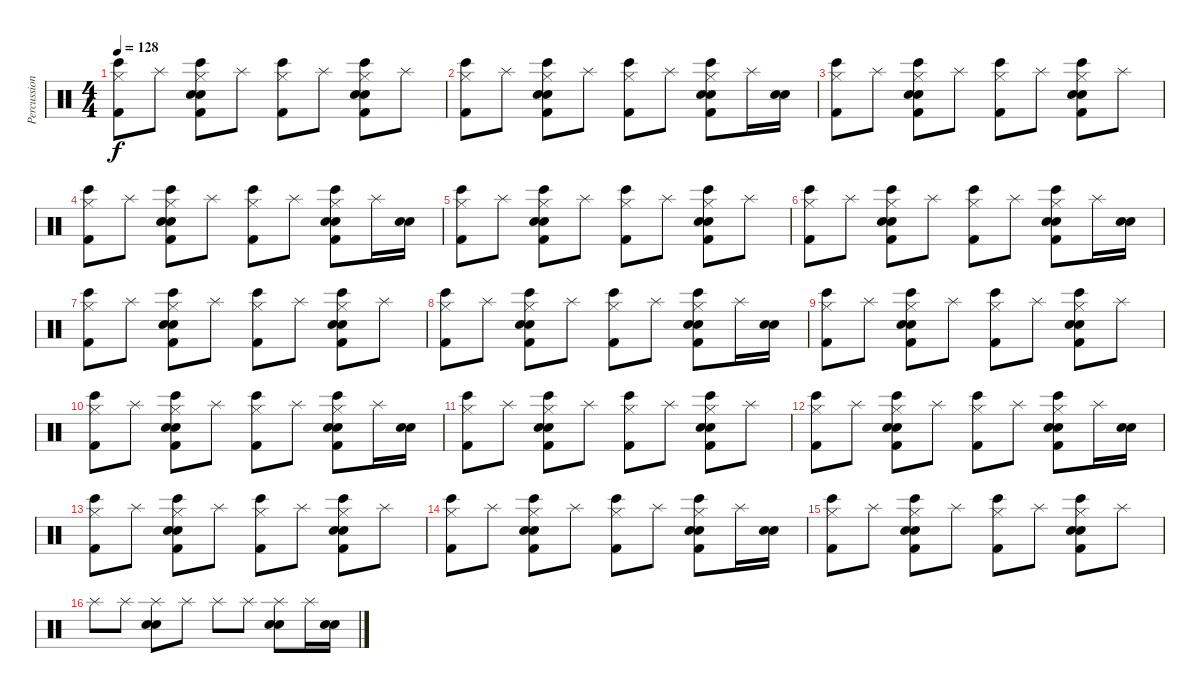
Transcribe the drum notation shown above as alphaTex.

\track ("Percussion" "Percussion") {instrument percussion}
\staff {score}
\articulation defaults
\ts (4 4)
\tempo 128
\clef neutral
\ks c
("Hi-Hat (closed)" "Bongo High (hit)" "Kick (hit) 2").8{dy f} "Splash (hit)".8 ("Hi-Hat (closed)" "Bongo High (hit)" "Hand Clap (hit)" "Electric Snare (hit)" "Kick (hit) 2").8 "Splash (hit)".8 ("Hi-Hat (closed)" "Bongo High (hit)" "Kick (hit) 2").8 "Splash (hit)".8 ("Hi-Hat (closed)" "Bongo High (hit)" "Hand Clap (hit)" "Electric Snare (hit)" "Kick (hit) 2").8 "Splash (hit)".8 |
("Hi-Hat (closed)" "Bongo High (hit)" "Kick (hit) 2").8 "Splash (hit)".8 ("Hi-Hat (closed)" "Bongo High (hit)" "Hand Clap (hit)" "Electric Snare (hit)" "Kick (hit) 2").8 "Splash (hit)".8 ("Hi-Hat (closed)" "Bongo High (hit)" "Kick (hit) 2").8 "Splash (hit)".8 ("Hi-Hat (closed)" "Bongo High (hit)" "Hand Clap (hit)" "Electric Snare (hit)" "Kick (hit) 2").8 "Splash (hit)".16 ("Hand Clap (hit)" "Electric Snare (hit)").16 |
("Hi-Hat (closed)" "Bongo High (hit)" "Kick (hit) 2").8 "Splash (hit)".8 ("Hi-Hat (closed)" "Bongo High (hit)" "Hand Clap (hit)" "Electric Snare (hit)" "Kick (hit) 2").8 "Splash (hit)".8 ("Hi-Hat (closed)" "Bongo High (hit)" "Kick (hit) 2").8 "Splash (hit)".8 ("Hi-Hat (closed)" "Bongo High (hit)" "Hand Clap (hit)" "Electric Snare (hit)" "Kick (hit) 2").8 "Splash (hit)".8 |
("Hi-Hat (closed)" "Bongo High (hit)" "Kick (hit) 2").8 "Splash (hit)".8 ("Hi-Hat (closed)" "Bongo High (hit)" "Hand Clap (hit)" "Electric Snare (hit)" "Kick (hit) 2").8 "Splash (hit)".8 ("Hi-Hat (closed)" "Bongo High (hit)" "Kick (hit) 2").8 "Splash (hit)".8 ("Hi-Hat (closed)" "Bongo High (hit)" "Hand Clap (hit)" "Electric Snare (hit)" "Kick (hit) 2").8 "Splash (hit)".16 ("Hand Clap (hit)" "Electric Snare (hit)").16 |
("Hi-Hat (closed)" "Bongo High (hit)" "Kick (hit) 2").8 "Splash (hit)".8 ("Hi-Hat (closed)" "Bongo High (hit)" "Hand Clap (hit)" "Electric Snare (hit)" "Kick (hit) 2").8 "Splash (hit)".8 ("Hi-Hat (closed)" "Bongo High (hit)" "Kick (hit) 2").8 "Splash (hit)".8 ("Hi-Hat (closed)" "Bongo High (hit)" "Hand Clap (hit)" "Electric Snare (hit)" "Kick (hit) 2").8 "Splash (hit)".8 |
("Hi-Hat (closed)" "Bongo High (hit)" "Kick (hit) 2").8 "Splash (hit)".8 ("Hi-Hat (closed)" "Bongo High (hit)" "Hand Clap (hit)" "Electric Snare (hit)" "Kick (hit) 2").8 "Splash (hit)".8 ("Hi-Hat (closed)" "Bongo High (hit)" "Kick (hit) 2").8 "Splash (hit)".8 ("Hi-Hat (closed)" "Bongo High (hit)" "Hand Clap (hit)" "Electric Snare (hit)" "Kick (hit) 2").8 "Splash (hit)".16 ("Hand Clap (hit)" "Electric Snare (hit)").16 |
("Hi-Hat (closed)" "Bongo High (hit)" "Kick (hit) 2").8 "Splash (hit)".8 ("Hi-Hat (closed)" "Bongo High (hit)" "Hand Clap (hit)" "Electric Snare (hit)" "Kick (hit) 2").8 "Splash (hit)".8 ("Hi-Hat (closed)" "Bongo High (hit)" "Kick (hit) 2").8 "Splash (hit)".8 ("Hi-Hat (closed)" "Bongo High (hit)" "Hand Clap (hit)" "Electric Snare (hit)" "Kick (hit) 2").8 "Splash (hit)".8 |
("Hi-Hat (closed)" "Bongo High (hit)" "Kick (hit) 2").8 "Splash (hit)".8 ("Hi-Hat (closed)" "Bongo High (hit)" "Hand Clap (hit)" "Electric Snare (hit)" "Kick (hit) 2").8 "Splash (hit)".8 ("Hi-Hat (closed)" "Bongo High (hit)" "Kick (hit) 2").8 "Splash (hit)".8 ("Hi-Hat (closed)" "Bongo High (hit)" "Hand Clap (hit)" "Electric Snare (hit)" "Kick (hit) 2").8 "Splash (hit)".16 ("Hand Clap (hit)" "Electric Snare (hit)").16 |
("Hi-Hat (closed)" "Bongo High (hit)" "Kick (hit) 2").8 "Splash (hit)".8 ("Hi-Hat (closed)" "Bongo High (hit)" "Hand Clap (hit)" "Electric Snare (hit)" "Kick (hit) 2").8 "Splash (hit)".8 ("Hi-Hat (closed)" "Bongo High (hit)" "Kick (hit) 2").8 "Splash (hit)".8 ("Hi-Hat (closed)" "Bongo High (hit)" "Hand Clap (hit)" "Electric Snare (hit)" "Kick (hit) 2").8 "Splash (hit)".8 |
("Hi-Hat (closed)" "Bongo High (hit)" "Kick (hit) 2").8 "Splash (hit)".8 ("Hi-Hat (closed)" "Bongo High (hit)" "Hand Clap (hit)" "Electric Snare (hit)" "Kick (hit) 2").8 "Splash (hit)".8 ("Hi-Hat (closed)" "Bongo High (hit)" "Kick (hit) 2").8 "Splash (hit)".8 ("Hi-Hat (closed)" "Bongo High (hit)" "Hand Clap (hit)" "Electric Snare (hit)" "Kick (hit) 2").8 "Splash (hit)".16 ("Hand Clap (hit)" "Electric Snare (hit)").16 |
("Hi-Hat (closed)" "Bongo High (hit)" "Kick (hit) 2").8 "Splash (hit)".8 ("Hi-Hat (closed)" "Bongo High (hit)" "Hand Clap (hit)" "Electric Snare (hit)" "Kick (hit) 2").8 "Splash (hit)".8 ("Hi-Hat (closed)" "Bongo High (hit)" "Kick (hit) 2").8 "Splash (hit)".8 ("Hi-Hat (closed)" "Bongo High (hit)" "Hand Clap (hit)" "Electric Snare (hit)" "Kick (hit) 2").8 "Splash (hit)".8 |
("Hi-Hat (closed)" "Bongo High (hit)" "Kick (hit) 2").8 "Splash (hit)".8 ("Hi-Hat (closed)" "Bongo High (hit)" "Hand Clap (hit)" "Electric Snare (hit)" "Kick (hit) 2").8 "Splash (hit)".8 ("Hi-Hat (closed)" "Bongo High (hit)" "Kick (hit) 2").8 "Splash (hit)".8 ("Hi-Hat (closed)" "Bongo High (hit)" "Hand Clap (hit)" "Electric Snare (hit)" "Kick (hit) 2").8 "Splash (hit)".16 ("Hand Clap (hit)" "Electric Snare (hit)").16 |
("Hi-Hat (closed)" "Bongo High (hit)" "Kick (hit) 2").8 "Splash (hit)".8 ("Hi-Hat (closed)" "Bongo High (hit)" "Hand Clap (hit)" "Electric Snare (hit)" "Kick (hit) 2").8 "Splash (hit)".8 ("Hi-Hat (closed)" "Bongo High (hit)" "Kick (hit) 2").8 "Splash (hit)".8 ("Hi-Hat (closed)" "Bongo High (hit)" "Hand Clap (hit)" "Electric Snare (hit)" "Kick (hit) 2").8 "Splash (hit)".8 |
("Hi-Hat (closed)" "Bongo High (hit)" "Kick (hit) 2").8 "Splash (hit)".8 ("Hi-Hat (closed)" "Bongo High (hit)" "Hand Clap (hit)" "Electric Snare (hit)" "Kick (hit) 2").8 "Splash (hit)".8 ("Hi-Hat (closed)" "Bongo High (hit)" "Kick (hit) 2").8 "Splash (hit)".8 ("Hi-Hat (closed)" "Bongo High (hit)" "Hand Clap (hit)" "Electric Snare (hit)" "Kick (hit) 2").8 "Splash (hit)".16 ("Hand Clap (hit)" "Electric Snare (hit)").16 |
("Hi-Hat (closed)" "Bongo High (hit)" "Kick (hit) 2").8 "Splash (hit)".8 ("Hi-Hat (closed)" "Bongo High (hit)" "Hand Clap (hit)" "Electric Snare (hit)" "Kick (hit) 2").8 "Splash (hit)".8 ("Hi-Hat (closed)" "Bongo High (hit)" "Kick (hit) 2").8 "Splash (hit)".8 ("Hi-Hat (closed)" "Bongo High (hit)" "Hand Clap (hit)" "Electric Snare (hit)" "Kick (hit) 2").8 "Splash (hit)".8 |
"Splash (hit)".8 "Splash (hit)".8 ("Splash (hit)" "Hand Clap (hit)" "Electric Snare (hit)").8 "Splash (hit)".8 "Splash (hit)".8 "Splash (hit)".8 ("Splash (hit)" "Hand Clap (hit)" "Electric Snare (hit)").8 "Splash (hit)".16 ("Hand Clap (hit)" "Electric Snare (hit)").16
